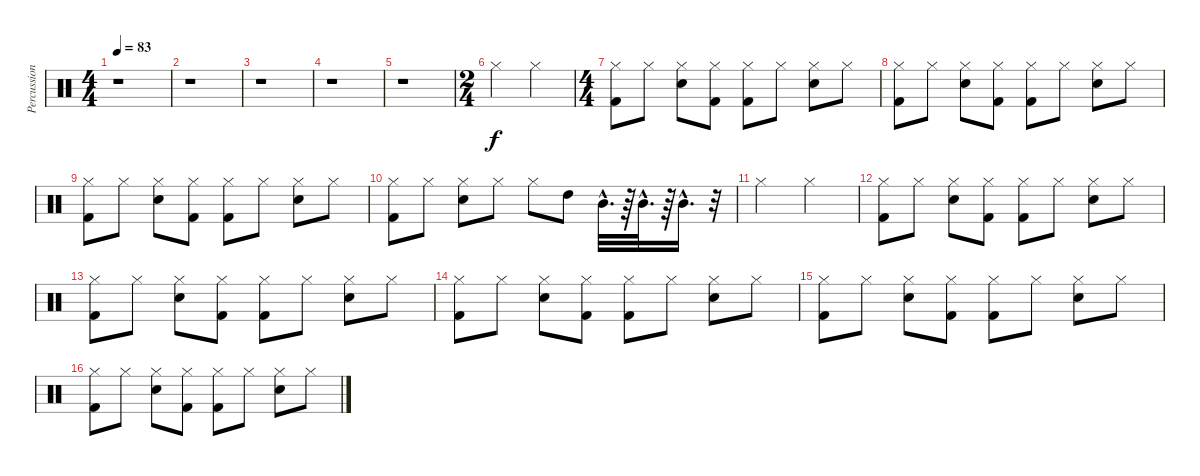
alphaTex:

\track ("Percussion" "Percussion") {instrument percussion}
\staff {score}
\articulation defaults
\ts (4 4)
\tempo 83
\clef neutral
\ks c
r.1{dy f} |
r.1 |
r.1 |
r.1 |
r.1 |
\ts (2 4)
"Hi-Hat (closed)".4 "Hi-Hat (closed)".4 |
\ts (4 4)
("Kick (hit) 2" "Hi-Hat (closed)").8 "Hi-Hat (closed)".8 ("Hi-Hat (closed)" "Snare (hit) 2").8 ("Hi-Hat (closed)" "Kick (hit) 2").8 ("Kick (hit) 2" "Hi-Hat (closed)").8 "Hi-Hat (closed)".8 ("Hi-Hat (closed)" "Snare (hit) 2").8 "Hi-Hat (closed)".8 |
("Kick (hit) 2" "Hi-Hat (closed)").8 "Hi-Hat (closed)".8 ("Hi-Hat (closed)" "Snare (hit) 2").8 ("Hi-Hat (closed)" "Kick (hit) 2").8 ("Kick (hit) 2" "Hi-Hat (closed)").8 "Hi-Hat (closed)".8 ("Hi-Hat (closed)" "Snare (hit) 2").8 "Hi-Hat (closed)".8 |
("Kick (hit) 2" "Hi-Hat (closed)").8 "Hi-Hat (closed)".8 ("Hi-Hat (closed)" "Snare (hit) 2").8 ("Hi-Hat (closed)" "Kick (hit) 2").8 ("Kick (hit) 2" "Hi-Hat (closed)").8 "Hi-Hat (closed)".8 ("Hi-Hat (closed)" "Snare (hit) 2").8 "Hi-Hat (closed)".8 |
("Hi-Hat (closed)" "Kick (hit) 2").8 "Hi-Hat (closed)".8 ("Snare (hit) 2" "Hi-Hat (closed)").8 "Hi-Hat (closed)".8 "Hi-Hat (closed)".8 "High Tom (hit)".8 "Mid Tom (hit)"{hac}.32{d} r.64 "Mid Tom (hit)"{hac}.32{d} r.64 "Mid Tom (hit)"{hac}.16{d} r.32 |
"Hi-Hat (closed)".2 "Hi-Hat (closed)".2 |
("Kick (hit) 2" "Hi-Hat (closed)").8 "Hi-Hat (closed)".8 ("Hi-Hat (closed)" "Snare (hit) 2").8 ("Hi-Hat (closed)" "Kick (hit) 2").8 ("Kick (hit) 2" "Hi-Hat (closed)").8 "Hi-Hat (closed)".8 ("Hi-Hat (closed)" "Snare (hit) 2").8 "Hi-Hat (closed)".8 |
("Kick (hit) 2" "Hi-Hat (closed)").8 "Hi-Hat (closed)".8 ("Hi-Hat (closed)" "Snare (hit) 2").8 ("Hi-Hat (closed)" "Kick (hit) 2").8 ("Kick (hit) 2" "Hi-Hat (closed)").8 "Hi-Hat (closed)".8 ("Hi-Hat (closed)" "Snare (hit) 2").8 "Hi-Hat (closed)".8 |
("Kick (hit) 2" "Hi-Hat (closed)").8 "Hi-Hat (closed)".8 ("Hi-Hat (closed)" "Snare (hit) 2").8 ("Hi-Hat (closed)" "Kick (hit) 2").8 ("Kick (hit) 2" "Hi-Hat (closed)").8 "Hi-Hat (closed)".8 ("Hi-Hat (closed)" "Snare (hit) 2").8 "Hi-Hat (closed)".8 |
("Kick (hit) 2" "Hi-Hat (closed)").8 "Hi-Hat (closed)".8 ("Hi-Hat (closed)" "Snare (hit) 2").8 ("Hi-Hat (closed)" "Kick (hit) 2").8 ("Kick (hit) 2" "Hi-Hat (closed)").8 "Hi-Hat (closed)".8 ("Hi-Hat (closed)" "Snare (hit) 2").8 "Hi-Hat (closed)".8 |
("Kick (hit) 2" "Hi-Hat (closed)").8 "Hi-Hat (closed)".8 ("Hi-Hat (closed)" "Snare (hit) 2").8 ("Hi-Hat (closed)" "Kick (hit) 2").8 ("Kick (hit) 2" "Hi-Hat (closed)").8 "Hi-Hat (closed)".8 ("Hi-Hat (closed)" "Snare (hit) 2").8 "Hi-Hat (closed)".8
